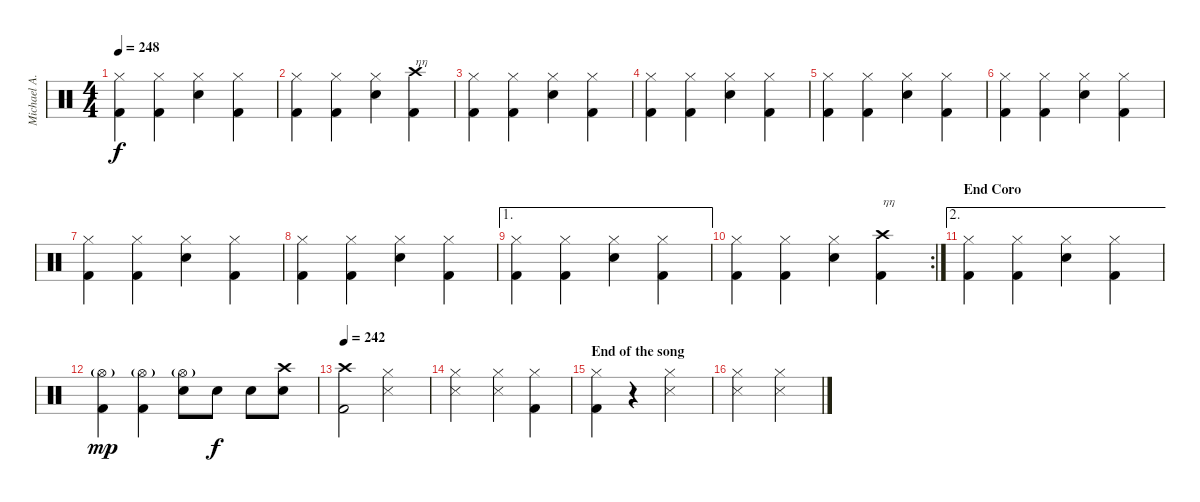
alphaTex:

\track ("Michael A." "Michael A.") {instrument percussion}
\staff {score}
\articulation defaults
\ts (4 4)
\tempo 248
\clef neutral
\ks c
("Kick (hit) 2" "Hi-Hat (closed)").4{dy f} ("Kick (hit) 2" "Hi-Hat (closed)").4 ("Electric Snare (hit)" "Hi-Hat (closed)").4 ("Kick (hit) 2" "Hi-Hat (closed)").4 |
("Kick (hit) 2" "Hi-Hat (closed)").4 ("Kick (hit) 2" "Hi-Hat (closed)").4 ("Electric Snare (hit)" "Hi-Hat (closed)").4 ("Kick (hit) 2" "Crash high (hit)").4{txt "ηη"} |
("Kick (hit) 2" "Hi-Hat (closed)").4 ("Kick (hit) 2" "Hi-Hat (closed)").4 ("Electric Snare (hit)" "Hi-Hat (closed)").4 ("Kick (hit) 2" "Hi-Hat (closed)").4 |
("Kick (hit) 2" "Hi-Hat (closed)").4 ("Kick (hit) 2" "Hi-Hat (closed)").4 ("Electric Snare (hit)" "Hi-Hat (closed)").4 ("Kick (hit) 2" "Hi-Hat (closed)").4 |
("Kick (hit) 2" "Hi-Hat (closed)").4 ("Kick (hit) 2" "Hi-Hat (closed)").4 ("Electric Snare (hit)" "Hi-Hat (closed)").4 ("Kick (hit) 2" "Hi-Hat (closed)").4 |
("Kick (hit) 2" "Hi-Hat (closed)").4 ("Kick (hit) 2" "Hi-Hat (closed)").4 ("Electric Snare (hit)" "Hi-Hat (closed)").4 ("Kick (hit) 2" "Hi-Hat (closed)").4 |
("Kick (hit) 2" "Hi-Hat (closed)").4 ("Kick (hit) 2" "Hi-Hat (closed)").4 ("Electric Snare (hit)" "Hi-Hat (closed)").4 ("Kick (hit) 2" "Hi-Hat (closed)").4 |
("Kick (hit) 2" "Hi-Hat (closed)").4 ("Kick (hit) 2" "Hi-Hat (closed)").4 ("Electric Snare (hit)" "Hi-Hat (closed)").4 ("Kick (hit) 2" "Hi-Hat (closed)").4 |
\ae 1
("Kick (hit) 2" "Hi-Hat (closed)").4 ("Kick (hit) 2" "Hi-Hat (closed)").4 ("Electric Snare (hit)" "Hi-Hat (closed)").4 ("Kick (hit) 2" "Hi-Hat (closed)").4 |
\rc 2
("Kick (hit) 2" "Hi-Hat (closed)").4 ("Kick (hit) 2" "Hi-Hat (closed)").4 ("Electric Snare (hit)" "Hi-Hat (closed)").4 ("Kick (hit) 2" "Crash high (hit)").4{txt "ηη"} |
\ae 2
\section ("" "End Coro")
("Kick (hit) 2" "Hi-Hat (closed)").4 ("Kick (hit) 2" "Hi-Hat (closed)").4 ("Electric Snare (hit)" "Hi-Hat (closed)").4 ("Kick (hit) 2" "Hi-Hat (closed)").4 |
("Kick (hit) 2" "Hi-Hat (open)"{g}).4{dy mp} ("Kick (hit) 2" "Hi-Hat (open)"{g}).4 ("Electric Snare (hit)" "Hi-Hat (open)"{g}).8 "Electric Snare (hit)".8{dy f} "Electric Snare (hit)".8 ("Electric Snare (hit)" "Crash high (hit)").8 |
\tempo 242
("Crash high (hit)" "Kick (hit) 2").2 ("Hi-Hat (closed)" "Snare (side stick) 3").2 |
("Hi-Hat (closed)" "Snare (side stick) 3").2 ("Hi-Hat (closed)" "Snare (side stick) 3").4 ("Hi-Hat (closed)" "Kick (hit) 2").4 |
\section ("" "End of the song")
("Hi-Hat (closed)" "Kick (hit) 2").4 r.4 ("Hi-Hat (closed)" "Snare (side stick) 3").2 |
("Hi-Hat (closed)" "Snare (side stick) 3").2 ("Hi-Hat (closed)" "Snare (side stick) 3").2
